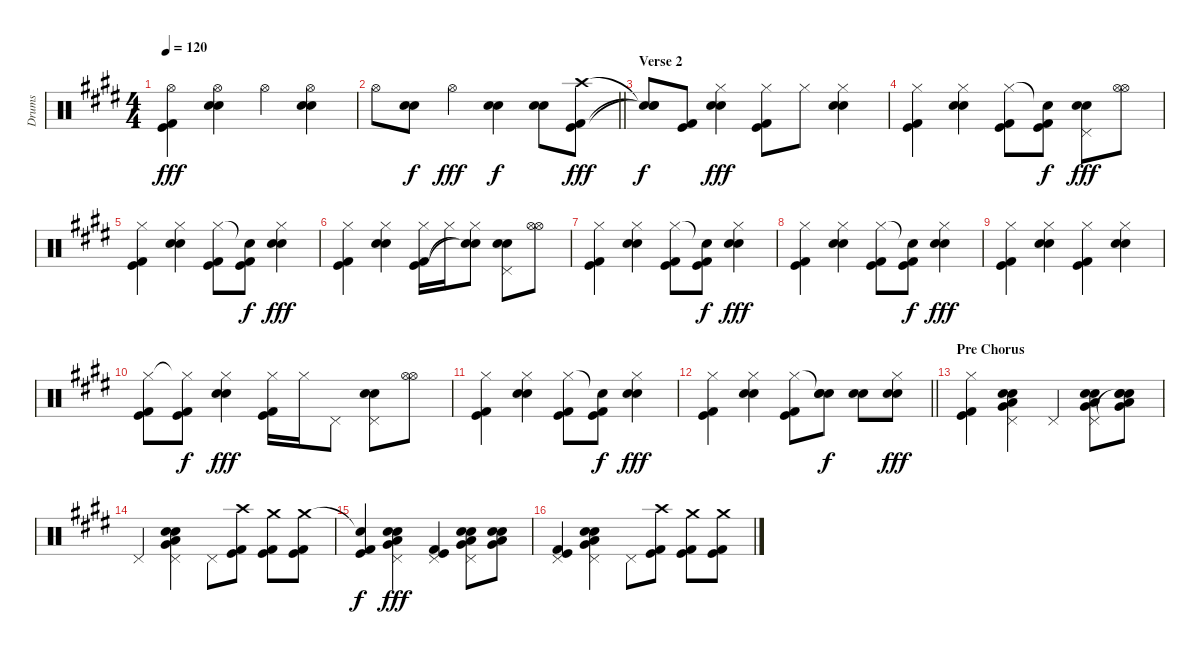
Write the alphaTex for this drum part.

\track ("Drums" "Drums") {instrument percussion}
\staff {score}
\articulation defaults
\ts (4 4)
\tempo 120
\clef neutral
\ks e
("Hi-Hat (open)" "Kick (hit)" "Kick (hit) 2").4{dy fff} ("Hi-Hat (open)" "Electric Snare (hit)" "Snare (hit) 2").4 "Hi-Hat (open)".4 ("Hi-Hat (open)" "Electric Snare (hit)" "Snare (hit) 2").4 |
\barLineRight lightlight "Hi-Hat (open)".8
("Electric Snare (hit)" "Snare (hit) 2").8{dy f} "Hi-Hat (open)".4{dy fff} ("Electric Snare (hit)" "Snare (hit) 2").4{dy f} ("Electric Snare (hit)" "Snare (hit) 2").8 ("Crash high (hit)" "Kick (hit)" "Kick (hit) 2").8{dy fff} |
\section ("" "Verse 2")
("Snare (hit)"{t} "Snare (hit)"{t} "Snare (hit)"{t}).8{dy f} ("Kick (hit)" "Kick (hit) 2").8 ("Hi-Hat (closed)" "Electric Snare (hit)" "Snare (hit) 2").4{dy fff} ("Hi-Hat (closed)" "Kick (hit)" "Kick (hit) 2").8 "Hi-Hat (closed)".8 ("Hi-Hat (closed)" "Electric Snare (hit)" "Snare (hit) 2").4 |
("Hi-Hat (closed)" "Kick (hit)" "Kick (hit) 2").4 ("Hi-Hat (closed)" "Electric Snare (hit)" "Snare (hit) 2").4 ("Hi-Hat (closed)" "Kick (hit)" "Kick (hit) 2").8 ("Snare (hit)"{t} "Kick (hit)" "Kick (hit) 2").8{dy f} ("Pedal Hi-Hat (hit)" "Electric Snare (hit)" "Snare (hit) 2").8{dy fff} ("Hi-Hat (open)" "Hi-Hat (open)").8 |
("Hi-Hat (closed)" "Kick (hit)" "Kick (hit) 2").4 ("Hi-Hat (closed)" "Electric Snare (hit)" "Snare (hit) 2").4 ("Hi-Hat (closed)" "Kick (hit)" "Kick (hit) 2").8 ("Snare (hit)"{t} "Kick (hit)" "Kick (hit) 2").8{dy f} ("Hi-Hat (closed)" "Electric Snare (hit)" "Snare (hit) 2").4{dy fff} |
("Hi-Hat (closed)" "Kick (hit)" "Kick (hit) 2").4 ("Hi-Hat (closed)" "Electric Snare (hit)" "Snare (hit) 2").4 ("Hi-Hat (closed)" "Kick (hit)" "Kick (hit) 2").16 "Hi-Hat (closed)".16 ("Hi-Hat (closed)" "Snare (hit)"{t} "Snare (hit)"{t}).8 ("Pedal Hi-Hat (hit)" "Electric Snare (hit)" "Snare (hit) 2").8 ("Hi-Hat (open)" "Hi-Hat (open)").8 |
("Hi-Hat (closed)" "Kick (hit)" "Kick (hit) 2").4 ("Hi-Hat (closed)" "Electric Snare (hit)" "Snare (hit) 2").4 ("Hi-Hat (closed)" "Kick (hit)" "Kick (hit) 2").8 ("Snare (hit)"{t} "Kick (hit)" "Kick (hit) 2").8{dy f} ("Hi-Hat (closed)" "Electric Snare (hit)" "Snare (hit) 2").4{dy fff} |
("Hi-Hat (closed)" "Kick (hit)" "Kick (hit) 2").4 ("Hi-Hat (closed)" "Electric Snare (hit)" "Snare (hit) 2").4 ("Hi-Hat (closed)" "Kick (hit)" "Kick (hit) 2").8 ("Snare (hit)"{t} "Kick (hit)" "Kick (hit) 2").8{dy f} ("Hi-Hat (closed)" "Electric Snare (hit)" "Snare (hit) 2").4{dy fff} |
("Hi-Hat (closed)" "Kick (hit)" "Kick (hit) 2").4 ("Hi-Hat (closed)" "Electric Snare (hit)" "Snare (hit) 2").4 ("Hi-Hat (closed)" "Kick (hit)" "Kick (hit) 2").4 ("Hi-Hat (closed)" "Electric Snare (hit)" "Snare (hit) 2").4 |
("Hi-Hat (closed)" "Kick (hit)" "Kick (hit) 2").8 ("Hi-Hat (closed)"{t} "Kick (hit)" "Kick (hit) 2").8{dy f} ("Hi-Hat (closed)" "Electric Snare (hit)" "Snare (hit) 2").4{dy fff} ("Hi-Hat (closed)" "Kick (hit)" "Kick (hit) 2").16 "Hi-Hat (closed)".16 "Pedal Hi-Hat (hit)".8 ("Pedal Hi-Hat (hit)" "Electric Snare (hit)" "Snare (hit) 2").8 ("Hi-Hat (open)" "Hi-Hat (open)").8 |
("Hi-Hat (closed)" "Kick (hit)" "Kick (hit) 2").4 ("Hi-Hat (closed)" "Electric Snare (hit)" "Snare (hit) 2").4 ("Hi-Hat (closed)" "Kick (hit)" "Kick (hit) 2").8 ("Snare (hit)"{t} "Kick (hit)" "Kick (hit) 2").8{dy f} ("Hi-Hat (closed)" "Electric Snare (hit)" "Snare (hit) 2").4{dy fff} |
\barLineRight lightlight
("Hi-Hat (closed)" "Kick (hit)" "Kick (hit) 2").4 ("Hi-Hat (closed)" "Electric Snare (hit)" "Snare (hit) 2").4 ("Hi-Hat (closed)" "Kick (hit)" "Kick (hit) 2").8 ("Snare (hit)"{t} "Electric Snare (hit)" "Snare (hit) 2").8{dy f} ("Electric Snare (hit)" "Snare (hit) 2").8 ("Hi-Hat (closed)" "Electric Snare (hit)" "Snare (hit) 2").8{dy fff} |
\section ("" "Pre Chorus")
("Hi-Hat (closed)" "Kick (hit)" "Kick (hit) 2").4 ("Pedal Hi-Hat (hit)" "Electric Snare (hit)" "Snare (hit) 2" "Very Low Tom (hit)" "Low Floor Tom (hit)").4 "Pedal Hi-Hat (hit)".4 ("Pedal Hi-Hat (hit)" "Electric Snare (hit)" "Snare (hit) 2" "Very Low Tom (hit)" "Low Floor Tom (hit)").8 ("Snare (hit)"{t} "Electric Snare (hit)" "Snare (hit) 2" "Very Low Tom (hit)" "Low Floor Tom (hit)").8 |
"Pedal Hi-Hat (hit)".4 ("Pedal Hi-Hat (hit)" "Electric Snare (hit)" "Snare (hit) 2" "Very Low Tom (hit)" "Low Floor Tom (hit)").4 "Pedal Hi-Hat (hit)".8 ("Crash high (hit)" "Kick (hit)" "Kick (hit) 2").8 ("Crash medium (hit)" "Kick (hit)" "Kick (hit) 2").8 ("Crash medium (hit)" "Kick (hit)" "Kick (hit) 2").8 |
("Snare (hit)"{t} "Kick (hit)" "Kick (hit) 2").4{dy f} ("Pedal Hi-Hat (hit)" "Electric Snare (hit)" "Snare (hit) 2" "Very Low Tom (hit)" "Low Floor Tom (hit)").4{dy fff} ("Pedal Hi-Hat (hit)" "Kick (hit)" "Kick (hit) 2").4 ("Pedal Hi-Hat (hit)" "Electric Snare (hit)" "Snare (hit) 2" "Very Low Tom (hit)" "Low Floor Tom (hit)").8 ("Electric Snare (hit)" "Snare (hit) 2" "Very Low Tom (hit)" "Low Floor Tom (hit)").8 |
("Pedal Hi-Hat (hit)" "Kick (hit)" "Kick (hit) 2").4 ("Pedal Hi-Hat (hit)" "Electric Snare (hit)" "Snare (hit) 2" "Very Low Tom (hit)" "Low Floor Tom (hit)").4 "Pedal Hi-Hat (hit)".8 ("Crash high (hit)" "Kick (hit)" "Kick (hit) 2").8 ("Crash medium (hit)" "Kick (hit)" "Kick (hit) 2").8 ("Crash medium (hit)" "Kick (hit)" "Kick (hit) 2").8
